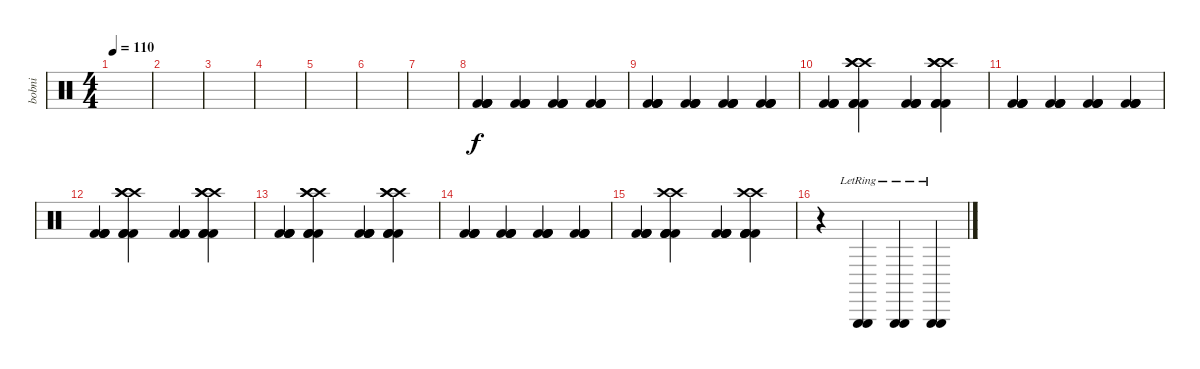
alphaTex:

\track ("bobni" "bobni") {instrument percussion}
\staff {score}
\articulation defaults
\ts (4 4)
\tempo 110
\clef neutral
\ks c
|
|
|
|
|
|
|
("Kick (hit) 2" "Kick (hit) 2" "Kick (hit) 2" "Kick (hit) 2").4 ("Kick (hit) 2" "Kick (hit) 2" "Kick (hit) 2" "Kick (hit) 2").4 ("Kick (hit) 2" "Kick (hit) 2" "Kick (hit) 2" "Kick (hit) 2").4 ("Kick (hit) 2" "Kick (hit) 2" "Kick (hit) 2" "Kick (hit) 2").4 |
("Kick (hit) 2" "Kick (hit) 2" "Kick (hit) 2" "Kick (hit) 2").4 ("Kick (hit) 2" "Kick (hit) 2" "Kick (hit) 2" "Kick (hit) 2").4 ("Kick (hit) 2" "Kick (hit) 2" "Kick (hit) 2" "Kick (hit) 2").4 ("Kick (hit) 2" "Kick (hit) 2" "Kick (hit) 2" "Kick (hit) 2").4 |
("Kick (hit) 2" "Kick (hit) 2" "Kick (hit) 2" "Kick (hit) 2").4 ("Crash high (hit)" "Crash high (hit)" "Crash high (hit)" "Kick (hit) 2" "Kick (hit) 2" "Kick (hit) 2").4 ("Kick (hit) 2" "Kick (hit) 2" "Kick (hit) 2" "Kick (hit) 2").4 ("Crash high (hit)" "Crash high (hit)" "Crash high (hit)" "Kick (hit) 2" "Kick (hit) 2" "Kick (hit) 2").4 |
("Kick (hit) 2" "Kick (hit) 2" "Kick (hit) 2" "Kick (hit) 2").4 ("Kick (hit) 2" "Kick (hit) 2" "Kick (hit) 2" "Kick (hit) 2").4 ("Kick (hit) 2" "Kick (hit) 2" "Kick (hit) 2" "Kick (hit) 2").4 ("Kick (hit) 2" "Kick (hit) 2" "Kick (hit) 2" "Kick (hit) 2").4 |
("Kick (hit) 2" "Kick (hit) 2" "Kick (hit) 2" "Kick (hit) 2").4 ("Crash high (hit)" "Crash high (hit)" "Crash high (hit)" "Kick (hit) 2" "Kick (hit) 2" "Kick (hit) 2").4 ("Kick (hit) 2" "Kick (hit) 2" "Kick (hit) 2" "Kick (hit) 2").4 ("Crash high (hit)" "Crash high (hit)" "Crash high (hit)" "Kick (hit) 2" "Kick (hit) 2" "Kick (hit) 2").4 |
("Kick (hit) 2" "Kick (hit) 2" "Kick (hit) 2" "Kick (hit) 2").4 ("Crash high (hit)" "Crash high (hit)" "Crash high (hit)" "Kick (hit) 2" "Kick (hit) 2" "Kick (hit) 2").4 ("Kick (hit) 2" "Kick (hit) 2" "Kick (hit) 2" "Kick (hit) 2").4 ("Crash high (hit)" "Crash high (hit)" "Crash high (hit)" "Kick (hit) 2" "Kick (hit) 2" "Kick (hit) 2").4 |
("Kick (hit) 2" "Kick (hit) 2" "Kick (hit) 2" "Kick (hit) 2").4 ("Kick (hit) 2" "Kick (hit) 2" "Kick (hit) 2" "Kick (hit) 2").4 ("Kick (hit) 2" "Kick (hit) 2" "Kick (hit) 2" "Kick (hit) 2").4 ("Kick (hit) 2" "Kick (hit) 2" "Kick (hit) 2" "Kick (hit) 2").4 |
("Kick (hit) 2" "Kick (hit) 2" "Kick (hit) 2" "Kick (hit) 2").4 ("Crash high (hit)" "Crash high (hit)" "Kick (hit) 2" "Kick (hit) 2" "Kick (hit) 2" "Kick (hit) 2").4 ("Kick (hit) 2" "Kick (hit) 2" "Kick (hit) 2" "Kick (hit) 2").4 ("Crash high (hit)" "Crash high (hit)" "Kick (hit) 2" "Kick (hit) 2" "Kick (hit) 2" "Kick (hit) 2").4 |
r.4{volume 10} ("Triangle (hit)"{lr} "Triangle (hit)"{lr}).4 ("Triangle (hit)"{lr} "Triangle (hit)"{lr}).4 ("Triangle (hit)"{lr} "Triangle (hit)"{lr}).4
